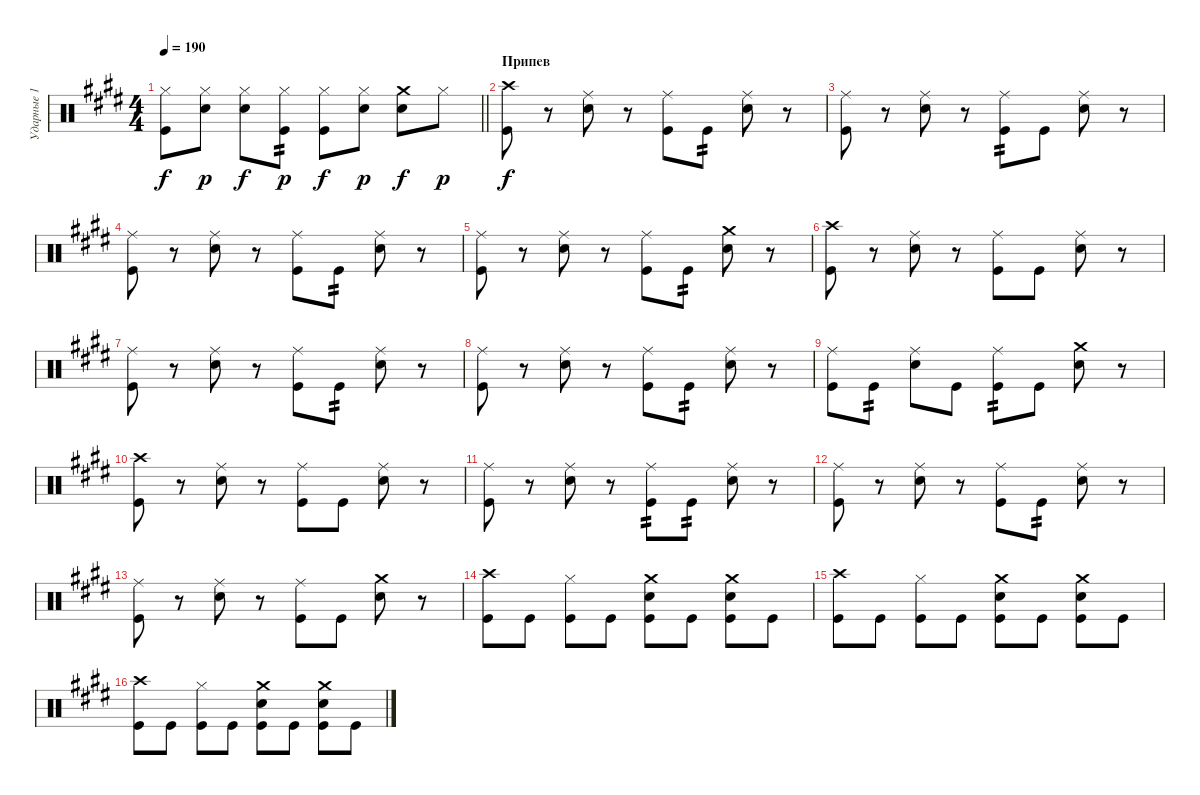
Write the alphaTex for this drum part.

\track ("Ударные 1" "Ударные 1") {instrument percussion}
\staff {score}
\articulation defaults
\ts (4 4)
\tempo 190
\clef neutral
\barLineRight lightlight
\ks c#minor
("Hi-Hat (closed)" "Kick (hit)").8{dy f} ("Hi-Hat (closed)" "Snare (hit) 2").8{dy p} ("Hi-Hat (closed)" "Snare (hit) 2").8{dy f} ("Hi-Hat (closed)" "Kick (hit)").8{tp 2 dy p} ("Hi-Hat (closed)" "Kick (hit)").8{dy f} ("Hi-Hat (closed)" "Snare (hit) 2").8{dy p} ("Crash medium (hit)" "Snare (hit) 2").8{dy f} "Hi-Hat (closed)".8{dy p} |
\section ("" "Припев")
("Crash high (hit)" "Kick (hit)").8{dy f} r.8 ("Ride (middle)" "Snare (hit) 2").8 r.8 ("Ride (middle)" "Kick (hit)").8 "Kick (hit)".8{tp 2} ("Ride (middle)" "Snare (hit) 2").8 r.8 |
("Ride (middle)" "Kick (hit)").8 r.8 ("Ride (middle)" "Snare (hit) 2").8 r.8 ("Ride (middle)" "Kick (hit)").8{tp 2} "Kick (hit)".8 ("Ride (middle)" "Snare (hit) 2").8 r.8 |
("Ride (middle)" "Kick (hit)").8 r.8 ("Ride (middle)" "Snare (hit) 2").8 r.8 ("Ride (middle)" "Kick (hit)").8 "Kick (hit)".8{tp 2} ("Ride (middle)" "Snare (hit) 2").8 r.8 |
("Ride (middle)" "Kick (hit)").8 r.8 ("Ride (middle)" "Snare (hit) 2").8 r.8 ("Ride (middle)" "Kick (hit)").8 "Kick (hit)".8{tp 2} ("Crash medium (hit)" "Snare (hit) 2").8 r.8 |
("Crash high (hit)" "Kick (hit)").8 r.8 ("Ride (middle)" "Snare (hit) 2").8 r.8 ("Ride (middle)" "Kick (hit)").8 "Kick (hit)".8 ("Ride (middle)" "Snare (hit) 2").8 r.8 |
("Ride (middle)" "Kick (hit)").8 r.8 ("Ride (middle)" "Snare (hit) 2").8 r.8 ("Ride (middle)" "Kick (hit)").8 "Kick (hit)".8{tp 2} ("Ride (middle)" "Snare (hit) 2").8 r.8 |
("Ride (middle)" "Kick (hit)").8 r.8 ("Ride (middle)" "Snare (hit) 2").8 r.8 ("Ride (middle)" "Kick (hit)").8 "Kick (hit)".8{tp 2} ("Ride (middle)" "Snare (hit) 2").8 r.8 |
("Ride (middle)" "Kick (hit)").8 "Kick (hit)".8{tp 2} ("Ride (middle)" "Snare (hit) 2").8 "Kick (hit)".8 ("Ride (middle)" "Kick (hit)").8{tp 2} "Kick (hit)".8 ("Crash medium (hit)" "Snare (hit) 2").8 r.8 |
("Crash high (hit)" "Kick (hit)").8 r.8 ("Ride (middle)" "Snare (hit) 2").8 r.8 ("Ride (middle)" "Kick (hit)").8 "Kick (hit)".8 ("Ride (middle)" "Snare (hit) 2").8 r.8 |
("Ride (middle)" "Kick (hit)").8 r.8 ("Ride (middle)" "Snare (hit) 2").8 r.8 ("Ride (middle)" "Kick (hit)").8{tp 2} "Kick (hit)".8{tp 2} ("Ride (middle)" "Snare (hit) 2").8 r.8 |
("Ride (middle)" "Kick (hit)").8 r.8 ("Ride (middle)" "Snare (hit) 2").8 r.8 ("Ride (middle)" "Kick (hit)").8 "Kick (hit)".8{tp 2} ("Ride (middle)" "Snare (hit) 2").8 r.8 |
("Ride (middle)" "Kick (hit)").8 r.8 ("Ride (middle)" "Snare (hit) 2").8 r.8 ("Ride (middle)" "Kick (hit)").8 "Kick (hit)".8 ("Crash medium (hit)" "Snare (hit) 2").8 r.8 |
("Crash high (hit)" "Kick (hit)").8 "Kick (hit)".8 ("Hi-Hat (closed)" "Kick (hit)").8 "Kick (hit)".8 ("Crash medium (hit)" "Snare (hit) 2" "Kick (hit)").8 "Kick (hit)".8 ("Crash medium (hit)" "Snare (hit) 2" "Kick (hit)").8 "Kick (hit)".8 |
("Crash high (hit)" "Kick (hit)").8 "Kick (hit)".8 ("Hi-Hat (closed)" "Kick (hit)").8 "Kick (hit)".8 ("Crash medium (hit)" "Snare (hit) 2" "Kick (hit)").8 "Kick (hit)".8 ("Crash medium (hit)" "Snare (hit) 2" "Kick (hit)").8 "Kick (hit)".8 |
("Crash high (hit)" "Kick (hit)").8 "Kick (hit)".8 ("Hi-Hat (closed)" "Kick (hit)").8 "Kick (hit)".8 ("Crash medium (hit)" "Snare (hit) 2" "Kick (hit)").8 "Kick (hit)".8 ("Crash medium (hit)" "Snare (hit) 2" "Kick (hit)").8 "Kick (hit)".8
